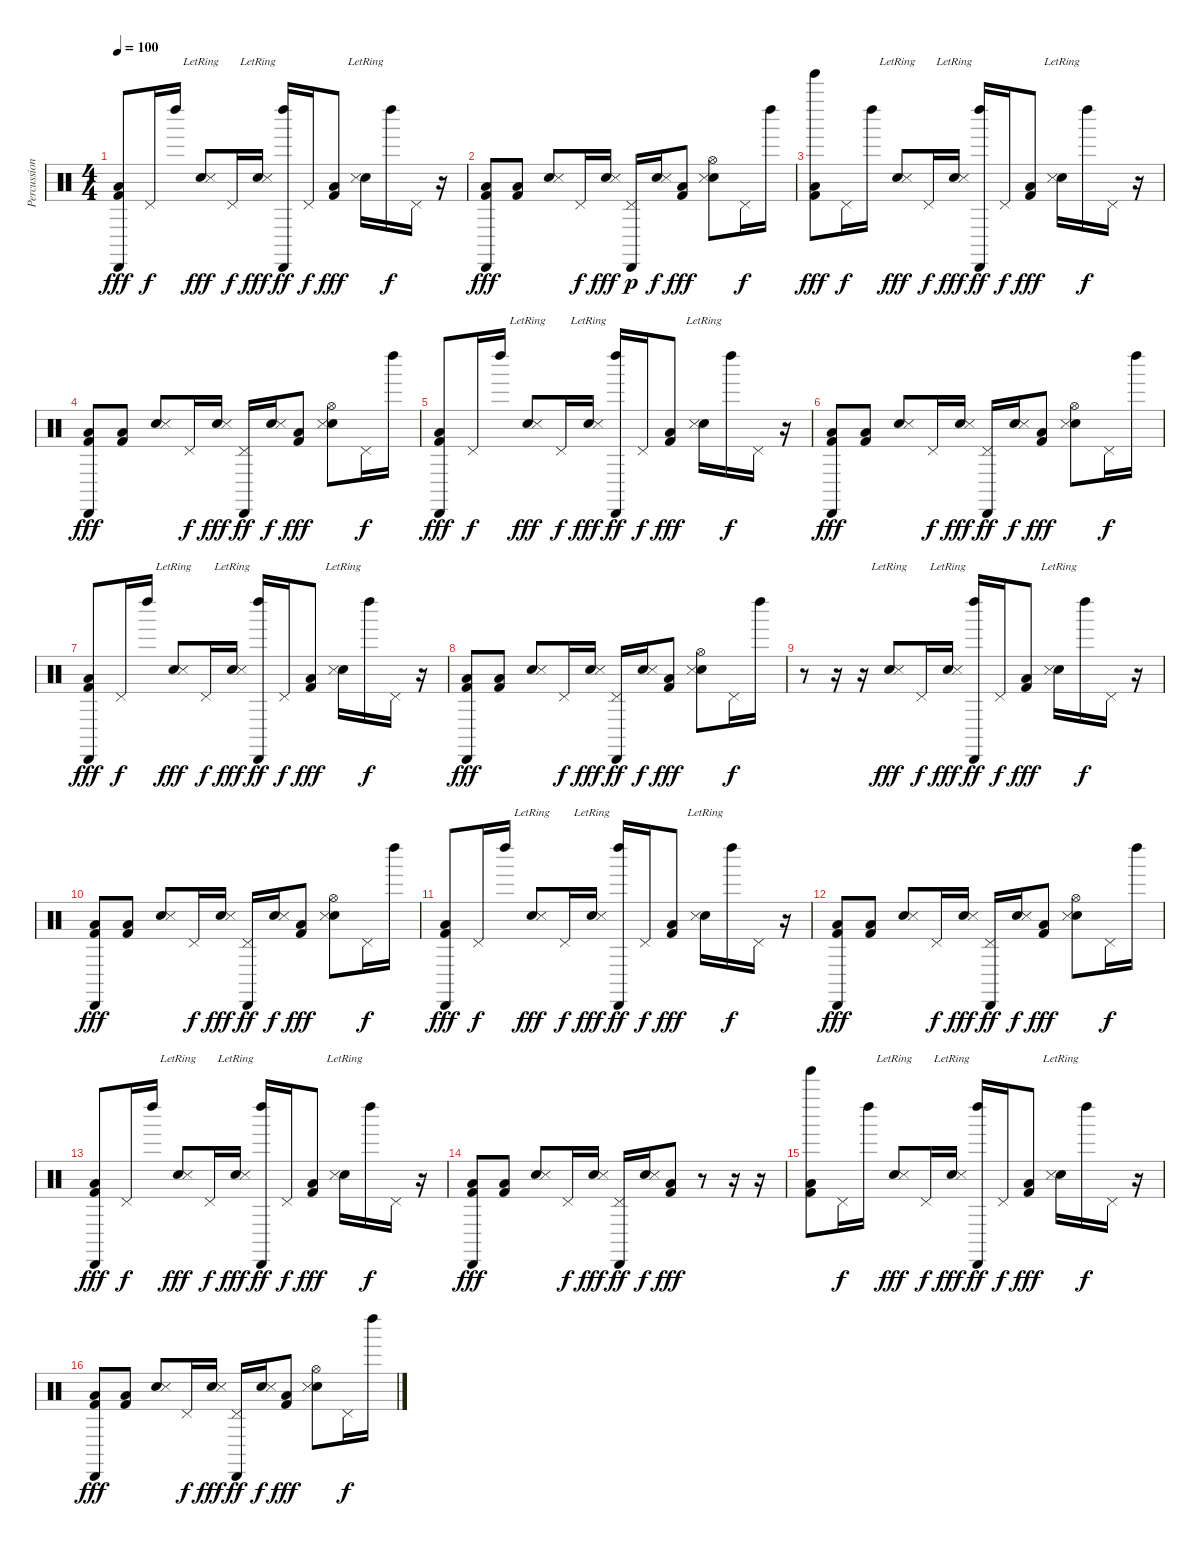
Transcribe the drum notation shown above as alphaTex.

\track ("Percussion" "Percussion") {instrument percussion}
\staff {score}
\articulation defaults
\ts (4 4)
\tempo 100
\clef neutral
\ks c
("Cabasa (hit)" "Low Floor Tom (hit)" "Kick (hit) 2").8{dy fff} "Pedal Hi-Hat (hit)".16{dy f} "Left Maraca (hit)".16 ("Electric Snare (hit)" "Snare (side stick) 3"{lr}).8{dy fff} "Pedal Hi-Hat (hit)".16{dy f} ("Electric Snare (hit)" "Snare (side stick) 3"{lr}).16{dy fff} ("Cabasa (hit)" "Left Maraca (hit)").16{dy ff} "Pedal Hi-Hat (hit)".16{dy f} ("Low Floor Tom (hit)" "Kick (hit) 2").8{dy fff} ("Electric Snare (hit)"{lr} "Snare (side stick) 3"{lr}).16 "Left Maraca (hit)".16{dy f} "Pedal Hi-Hat (hit)".16 r.16 |
("Cabasa (hit)" "Low Floor Tom (hit)" "Kick (hit) 2").8{dy fff} ("Low Floor Tom (hit)" "Kick (hit) 2").8 ("Electric Snare (hit)" "Snare (side stick) 3").8 "Pedal Hi-Hat (hit)".16{dy f} ("Electric Snare (hit)" "Snare (side stick) 3").16{dy fff} ("Cabasa (hit)" "Pedal Hi-Hat (hit)").16{dy p} ("Electric Snare (hit)" "Snare (side stick) 3").16{dy f} ("Low Floor Tom (hit)" "Kick (hit) 2").8{dy fff} ("Hi-Hat (open)" "Electric Snare (hit)" "Snare (side stick) 3").8 "Pedal Hi-Hat (hit)".16{dy f} "Left Maraca (hit)".16 |
("Tinkle Bell (hit)" "Low Floor Tom (hit)" "Kick (hit) 2").8{dy fff} "Pedal Hi-Hat (hit)".16{dy f} "Left Maraca (hit)".16 ("Electric Snare (hit)" "Snare (side stick) 3"{lr}).8{dy fff} "Pedal Hi-Hat (hit)".16{dy f} ("Electric Snare (hit)" "Snare (side stick) 3"{lr}).16{dy fff} ("Cabasa (hit)" "Left Maraca (hit)").16{dy ff} "Pedal Hi-Hat (hit)".16{dy f} ("Low Floor Tom (hit)" "Kick (hit) 2").8{dy fff} ("Electric Snare (hit)"{lr} "Snare (side stick) 3"{lr}).16 "Left Maraca (hit)".16{dy f} "Pedal Hi-Hat (hit)".16 r.16 |
("Cabasa (hit)" "Low Floor Tom (hit)" "Kick (hit) 2").8{dy fff} ("Low Floor Tom (hit)" "Kick (hit) 2").8 ("Electric Snare (hit)" "Snare (side stick) 3").8 "Pedal Hi-Hat (hit)".16{dy f} ("Electric Snare (hit)" "Snare (side stick) 3").16{dy fff} ("Cabasa (hit)" "Pedal Hi-Hat (hit)").16{dy ff} ("Electric Snare (hit)" "Snare (side stick) 3").16{dy f} ("Low Floor Tom (hit)" "Kick (hit) 2").8{dy fff} ("Hi-Hat (open)" "Electric Snare (hit)" "Snare (side stick) 3").8 "Pedal Hi-Hat (hit)".16{dy f} "Left Maraca (hit)".16 |
("Cabasa (hit)" "Low Floor Tom (hit)" "Kick (hit) 2").8{dy fff} "Pedal Hi-Hat (hit)".16{dy f} "Left Maraca (hit)".16 ("Electric Snare (hit)" "Snare (side stick) 3"{lr}).8{dy fff} "Pedal Hi-Hat (hit)".16{dy f} ("Electric Snare (hit)" "Snare (side stick) 3"{lr}).16{dy fff} ("Cabasa (hit)" "Left Maraca (hit)").16{dy ff} "Pedal Hi-Hat (hit)".16{dy f} ("Low Floor Tom (hit)" "Kick (hit) 2").8{dy fff} ("Electric Snare (hit)"{lr} "Snare (side stick) 3"{lr}).16 "Left Maraca (hit)".16{dy f} "Pedal Hi-Hat (hit)".16 r.16 |
("Cabasa (hit)" "Low Floor Tom (hit)" "Kick (hit) 2").8{dy fff} ("Low Floor Tom (hit)" "Kick (hit) 2").8 ("Electric Snare (hit)" "Snare (side stick) 3").8 "Pedal Hi-Hat (hit)".16{dy f} ("Electric Snare (hit)" "Snare (side stick) 3").16{dy fff} ("Cabasa (hit)" "Pedal Hi-Hat (hit)").16{dy ff} ("Electric Snare (hit)" "Snare (side stick) 3").16{dy f} ("Low Floor Tom (hit)" "Kick (hit) 2").8{dy fff} ("Hi-Hat (open)" "Electric Snare (hit)" "Snare (side stick) 3").8 "Pedal Hi-Hat (hit)".16{dy f} "Left Maraca (hit)".16 |
("Cabasa (hit)" "Low Floor Tom (hit)" "Kick (hit) 2").8{dy fff} "Pedal Hi-Hat (hit)".16{dy f} "Left Maraca (hit)".16 ("Electric Snare (hit)" "Snare (side stick) 3"{lr}).8{dy fff} "Pedal Hi-Hat (hit)".16{dy f} ("Electric Snare (hit)" "Snare (side stick) 3"{lr}).16{dy fff} ("Cabasa (hit)" "Left Maraca (hit)").16{dy ff} "Pedal Hi-Hat (hit)".16{dy f} ("Low Floor Tom (hit)" "Kick (hit) 2").8{dy fff} ("Electric Snare (hit)"{lr} "Snare (side stick) 3"{lr}).16 "Left Maraca (hit)".16{dy f} "Pedal Hi-Hat (hit)".16 r.16 |
("Cabasa (hit)" "Low Floor Tom (hit)" "Kick (hit) 2").8{dy fff} ("Low Floor Tom (hit)" "Kick (hit) 2").8 ("Electric Snare (hit)" "Snare (side stick) 3").8 "Pedal Hi-Hat (hit)".16{dy f} ("Electric Snare (hit)" "Snare (side stick) 3").16{dy fff} ("Cabasa (hit)" "Pedal Hi-Hat (hit)").16{dy ff} ("Electric Snare (hit)" "Snare (side stick) 3").16{dy f} ("Low Floor Tom (hit)" "Kick (hit) 2").8{dy fff} ("Hi-Hat (open)" "Electric Snare (hit)" "Snare (side stick) 3").8 "Pedal Hi-Hat (hit)".16{dy f} "Left Maraca (hit)".16 |
r.8 r.16 r.16 ("Electric Snare (hit)" "Snare (side stick) 3"{lr}).8{dy fff} "Pedal Hi-Hat (hit)".16{dy f} ("Electric Snare (hit)" "Snare (side stick) 3"{lr}).16{dy fff} ("Cabasa (hit)" "Left Maraca (hit)").16{dy ff} "Pedal Hi-Hat (hit)".16{dy f} ("Low Floor Tom (hit)" "Kick (hit) 2").8{dy fff} ("Electric Snare (hit)"{lr} "Snare (side stick) 3"{lr}).16 "Left Maraca (hit)".16{dy f} "Pedal Hi-Hat (hit)".16 r.16 |
("Cabasa (hit)" "Low Floor Tom (hit)" "Kick (hit) 2").8{dy fff} ("Low Floor Tom (hit)" "Kick (hit) 2").8 ("Electric Snare (hit)" "Snare (side stick) 3").8 "Pedal Hi-Hat (hit)".16{dy f} ("Electric Snare (hit)" "Snare (side stick) 3").16{dy fff} ("Cabasa (hit)" "Pedal Hi-Hat (hit)").16{dy ff} ("Electric Snare (hit)" "Snare (side stick) 3").16{dy f} ("Low Floor Tom (hit)" "Kick (hit) 2").8{dy fff} ("Hi-Hat (open)" "Electric Snare (hit)" "Snare (side stick) 3").8 "Pedal Hi-Hat (hit)".16{dy f} "Left Maraca (hit)".16 |
("Cabasa (hit)" "Low Floor Tom (hit)" "Kick (hit) 2").8{dy fff} "Pedal Hi-Hat (hit)".16{dy f} "Left Maraca (hit)".16 ("Electric Snare (hit)" "Snare (side stick) 3"{lr}).8{dy fff} "Pedal Hi-Hat (hit)".16{dy f} ("Electric Snare (hit)" "Snare (side stick) 3"{lr}).16{dy fff} ("Cabasa (hit)" "Left Maraca (hit)").16{dy ff} "Pedal Hi-Hat (hit)".16{dy f} ("Low Floor Tom (hit)" "Kick (hit) 2").8{dy fff} ("Electric Snare (hit)"{lr} "Snare (side stick) 3"{lr}).16 "Left Maraca (hit)".16{dy f} "Pedal Hi-Hat (hit)".16 r.16 |
("Cabasa (hit)" "Low Floor Tom (hit)" "Kick (hit) 2").8{dy fff} ("Low Floor Tom (hit)" "Kick (hit) 2").8 ("Electric Snare (hit)" "Snare (side stick) 3").8 "Pedal Hi-Hat (hit)".16{dy f} ("Electric Snare (hit)" "Snare (side stick) 3").16{dy fff} ("Cabasa (hit)" "Pedal Hi-Hat (hit)").16{dy ff} ("Electric Snare (hit)" "Snare (side stick) 3").16{dy f} ("Low Floor Tom (hit)" "Kick (hit) 2").8{dy fff} ("Hi-Hat (open)" "Electric Snare (hit)" "Snare (side stick) 3").8 "Pedal Hi-Hat (hit)".16{dy f} "Left Maraca (hit)".16 |
("Cabasa (hit)" "Low Floor Tom (hit)" "Kick (hit) 2").8{dy fff} "Pedal Hi-Hat (hit)".16{dy f} "Left Maraca (hit)".16 ("Electric Snare (hit)" "Snare (side stick) 3"{lr}).8{dy fff} "Pedal Hi-Hat (hit)".16{dy f} ("Electric Snare (hit)" "Snare (side stick) 3"{lr}).16{dy fff} ("Cabasa (hit)" "Left Maraca (hit)").16{dy ff} "Pedal Hi-Hat (hit)".16{dy f} ("Low Floor Tom (hit)" "Kick (hit) 2").8{dy fff} ("Electric Snare (hit)"{lr} "Snare (side stick) 3"{lr}).16 "Left Maraca (hit)".16{dy f} "Pedal Hi-Hat (hit)".16 r.16 |
("Cabasa (hit)" "Low Floor Tom (hit)" "Kick (hit) 2").8{dy fff} ("Low Floor Tom (hit)" "Kick (hit) 2").8 ("Electric Snare (hit)" "Snare (side stick) 3").8 "Pedal Hi-Hat (hit)".16{dy f} ("Electric Snare (hit)" "Snare (side stick) 3").16{dy fff} ("Cabasa (hit)" "Pedal Hi-Hat (hit)").16{dy ff} ("Electric Snare (hit)" "Snare (side stick) 3").16{dy f} ("Low Floor Tom (hit)" "Kick (hit) 2").8{dy fff} r.8 r.16 r.16 |
("Tinkle Bell (hit)" "Low Floor Tom (hit)" "Kick (hit) 2").8 "Pedal Hi-Hat (hit)".16{dy f} "Left Maraca (hit)".16 ("Electric Snare (hit)" "Snare (side stick) 3"{lr}).8{dy fff} "Pedal Hi-Hat (hit)".16{dy f} ("Electric Snare (hit)" "Snare (side stick) 3"{lr}).16{dy fff} ("Cabasa (hit)" "Left Maraca (hit)").16{dy ff} "Pedal Hi-Hat (hit)".16{dy f} ("Low Floor Tom (hit)" "Kick (hit) 2").8{dy fff} ("Electric Snare (hit)"{lr} "Snare (side stick) 3"{lr}).16 "Left Maraca (hit)".16{dy f} "Pedal Hi-Hat (hit)".16 r.16 |
("Cabasa (hit)" "Low Floor Tom (hit)" "Kick (hit) 2").8{dy fff} ("Low Floor Tom (hit)" "Kick (hit) 2").8 ("Electric Snare (hit)" "Snare (side stick) 3").8 "Pedal Hi-Hat (hit)".16{dy f} ("Electric Snare (hit)" "Snare (side stick) 3").16{dy fff} ("Cabasa (hit)" "Pedal Hi-Hat (hit)").16{dy ff} ("Electric Snare (hit)" "Snare (side stick) 3").16{dy f} ("Low Floor Tom (hit)" "Kick (hit) 2").8{dy fff} ("Hi-Hat (open)" "Electric Snare (hit)" "Snare (side stick) 3").8 "Pedal Hi-Hat (hit)".16{dy f} "Left Maraca (hit)".16
